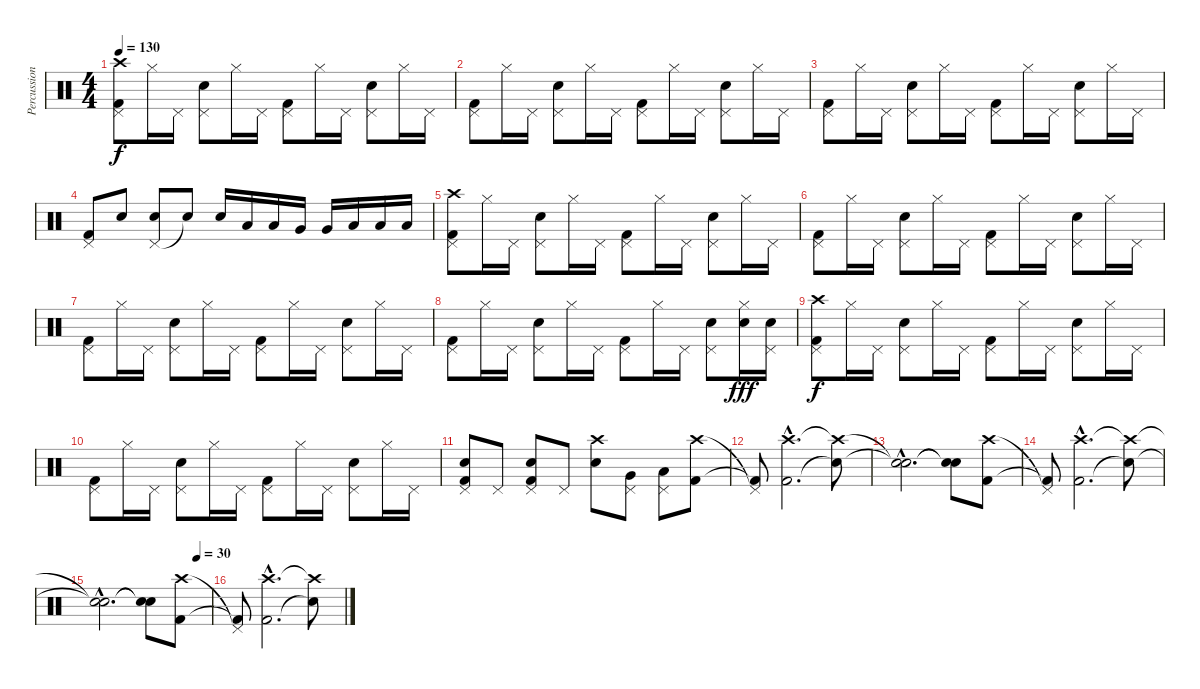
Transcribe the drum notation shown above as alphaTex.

\track ("Percussion" "Percussion") {instrument percussion}
\staff {score}
\articulation defaults
\ts (4 4)
\tempo 130
\clef neutral
\ks c
("Crash high (hit)" "Pedal Hi-Hat (hit)" "Kick (hit) 2").8{dy f} "Hi-Hat (closed)".16 "Pedal Hi-Hat (hit)".16 ("Pedal Hi-Hat (hit)" "Snare (hit) 2").8 "Hi-Hat (closed)".16 "Pedal Hi-Hat (hit)".16 ("Pedal Hi-Hat (hit)" "Kick (hit) 2").8 "Hi-Hat (closed)".16 "Pedal Hi-Hat (hit)".16 ("Pedal Hi-Hat (hit)" "Snare (hit) 2").8 "Hi-Hat (closed)".16 "Pedal Hi-Hat (hit)".16 |
("Pedal Hi-Hat (hit)" "Kick (hit) 2").8 "Hi-Hat (closed)".16 "Pedal Hi-Hat (hit)".16 ("Pedal Hi-Hat (hit)" "Snare (hit) 2").8 "Hi-Hat (closed)".16 "Pedal Hi-Hat (hit)".16 ("Pedal Hi-Hat (hit)" "Kick (hit) 2").8 "Hi-Hat (closed)".16 "Pedal Hi-Hat (hit)".16 ("Pedal Hi-Hat (hit)" "Snare (hit) 2").8 "Hi-Hat (closed)".16 "Pedal Hi-Hat (hit)".16 |
("Pedal Hi-Hat (hit)" "Kick (hit) 2").8 "Hi-Hat (closed)".16 "Pedal Hi-Hat (hit)".16 ("Pedal Hi-Hat (hit)" "Snare (hit) 2").8 "Hi-Hat (closed)".16 "Pedal Hi-Hat (hit)".16 ("Pedal Hi-Hat (hit)" "Kick (hit) 2").8 "Hi-Hat (closed)".16 "Pedal Hi-Hat (hit)".16 ("Pedal Hi-Hat (hit)" "Snare (hit) 2").8 "Hi-Hat (closed)".16 "Pedal Hi-Hat (hit)".16 |
("Pedal Hi-Hat (hit)" "Kick (hit) 2").8 "Snare (hit) 2".8 ("Pedal Hi-Hat (hit)" "Snare (hit) 2").8 "Snare (hit)"{t}.8 "Snare (hit) 2".16 "Low Tom (hit)".16 "Low Tom (hit)".16 "Very Low Tom (hit)".16 "Very Low Tom (hit)".16 "Low Floor Tom (hit)".16 "Low Floor Tom (hit)".16 "Low Floor Tom (hit)".16 |
("Crash high (hit)" "Pedal Hi-Hat (hit)" "Kick (hit) 2").8 "Hi-Hat (closed)".16 "Pedal Hi-Hat (hit)".16 ("Pedal Hi-Hat (hit)" "Snare (hit) 2").8 "Hi-Hat (closed)".16 "Pedal Hi-Hat (hit)".16 ("Pedal Hi-Hat (hit)" "Kick (hit) 2").8 "Hi-Hat (closed)".16 "Pedal Hi-Hat (hit)".16 ("Pedal Hi-Hat (hit)" "Snare (hit) 2").8 "Hi-Hat (closed)".16 "Pedal Hi-Hat (hit)".16 |
("Pedal Hi-Hat (hit)" "Kick (hit) 2").8 "Hi-Hat (closed)".16 "Pedal Hi-Hat (hit)".16 ("Pedal Hi-Hat (hit)" "Snare (hit) 2").8 "Hi-Hat (closed)".16 "Pedal Hi-Hat (hit)".16 ("Pedal Hi-Hat (hit)" "Kick (hit) 2").8 "Hi-Hat (closed)".16 "Pedal Hi-Hat (hit)".16 ("Pedal Hi-Hat (hit)" "Snare (hit) 2").8 "Hi-Hat (closed)".16 "Pedal Hi-Hat (hit)".16 |
("Pedal Hi-Hat (hit)" "Kick (hit) 2").8 "Hi-Hat (closed)".16 "Pedal Hi-Hat (hit)".16 ("Pedal Hi-Hat (hit)" "Snare (hit) 2").8 "Hi-Hat (closed)".16 "Pedal Hi-Hat (hit)".16 ("Pedal Hi-Hat (hit)" "Kick (hit) 2").8 "Hi-Hat (closed)".16 "Pedal Hi-Hat (hit)".16 ("Pedal Hi-Hat (hit)" "Snare (hit) 2").8 "Hi-Hat (closed)".16 "Pedal Hi-Hat (hit)".16 |
("Pedal Hi-Hat (hit)" "Kick (hit) 2").8 "Hi-Hat (closed)".16 "Pedal Hi-Hat (hit)".16 ("Pedal Hi-Hat (hit)" "Snare (hit) 2").8 "Hi-Hat (closed)".16 "Pedal Hi-Hat (hit)".16 ("Pedal Hi-Hat (hit)" "Kick (hit) 2").8 "Hi-Hat (closed)".16 "Pedal Hi-Hat (hit)".16 ("Pedal Hi-Hat (hit)" "Snare (hit) 2").8 ("Hi-Hat (closed)" "Snare (hit) 2").16{dy fff} ("Pedal Hi-Hat (hit)" "Snare (hit) 2").16 |
("Crash high (hit)" "Pedal Hi-Hat (hit)" "Kick (hit) 2").8{dy f} "Hi-Hat (closed)".16 "Pedal Hi-Hat (hit)".16 ("Pedal Hi-Hat (hit)" "Snare (hit) 2").8 "Hi-Hat (closed)".16 "Pedal Hi-Hat (hit)".16 ("Pedal Hi-Hat (hit)" "Kick (hit) 2").8 "Hi-Hat (closed)".16 "Pedal Hi-Hat (hit)".16 ("Pedal Hi-Hat (hit)" "Snare (hit) 2").8 "Hi-Hat (closed)".16 "Pedal Hi-Hat (hit)".16 |
("Pedal Hi-Hat (hit)" "Kick (hit) 2").8 "Hi-Hat (closed)".16 "Pedal Hi-Hat (hit)".16 ("Pedal Hi-Hat (hit)" "Snare (hit) 2").8 "Hi-Hat (closed)".16 "Pedal Hi-Hat (hit)".16 ("Pedal Hi-Hat (hit)" "Kick (hit) 2").8 "Hi-Hat (closed)".16 "Pedal Hi-Hat (hit)".16 ("Pedal Hi-Hat (hit)" "Snare (hit) 2").8 "Hi-Hat (closed)".16 "Pedal Hi-Hat (hit)".16 |
("Pedal Hi-Hat (hit)" "Snare (hit) 2" "Kick (hit) 2").8 "Pedal Hi-Hat (hit)".8 ("Pedal Hi-Hat (hit)" "Snare (hit) 2" "Kick (hit) 2").8 "Pedal Hi-Hat (hit)".8 ("Crash high (hit)" "Snare (hit) 2").8 ("Pedal Hi-Hat (hit)" "Very Low Tom (hit)").8 ("Pedal Hi-Hat (hit)" "Low Floor Tom (hit)").8 ("Crash high (hit)" "Kick (hit) 2").8 |
("Pedal Hi-Hat (hit)"{t} "Kick (hit) 2"{t}).8 ("Crash high (hit)"{hac} "Kick (hit) 2"{hac}).2{d} ("Crash high (hit)"{t} "Snare (hit) 2"{t}).8 |
("Snare (hit)"{hac t} "Snare (hit)"{hac t}).2{d} ("Snare (hit)"{t} "Snare (hit)"{t}).8 ("Crash high (hit)" "Kick (hit) 2").8 |
("Pedal Hi-Hat (hit)"{t} "Kick (hit) 2"{t}).8 ("Crash high (hit)"{hac} "Kick (hit) 2"{hac}).2{d} ("Crash high (hit)"{t} "Snare (hit) 2"{t}).8 |
\tempo (30 0.875)
("Snare (hit)"{hac t} "Snare (hit)"{hac t}).2{d} ("Snare (hit)"{t} "Snare (hit)"{t}).8 ("Crash high (hit)" "Kick (hit) 2").8 |
("Pedal Hi-Hat (hit)"{t} "Kick (hit) 2"{t}).8 ("Crash high (hit)"{hac} "Kick (hit) 2"{hac}).2{d} ("Crash high (hit)"{t} "Snare (hit) 2"{t}).8
